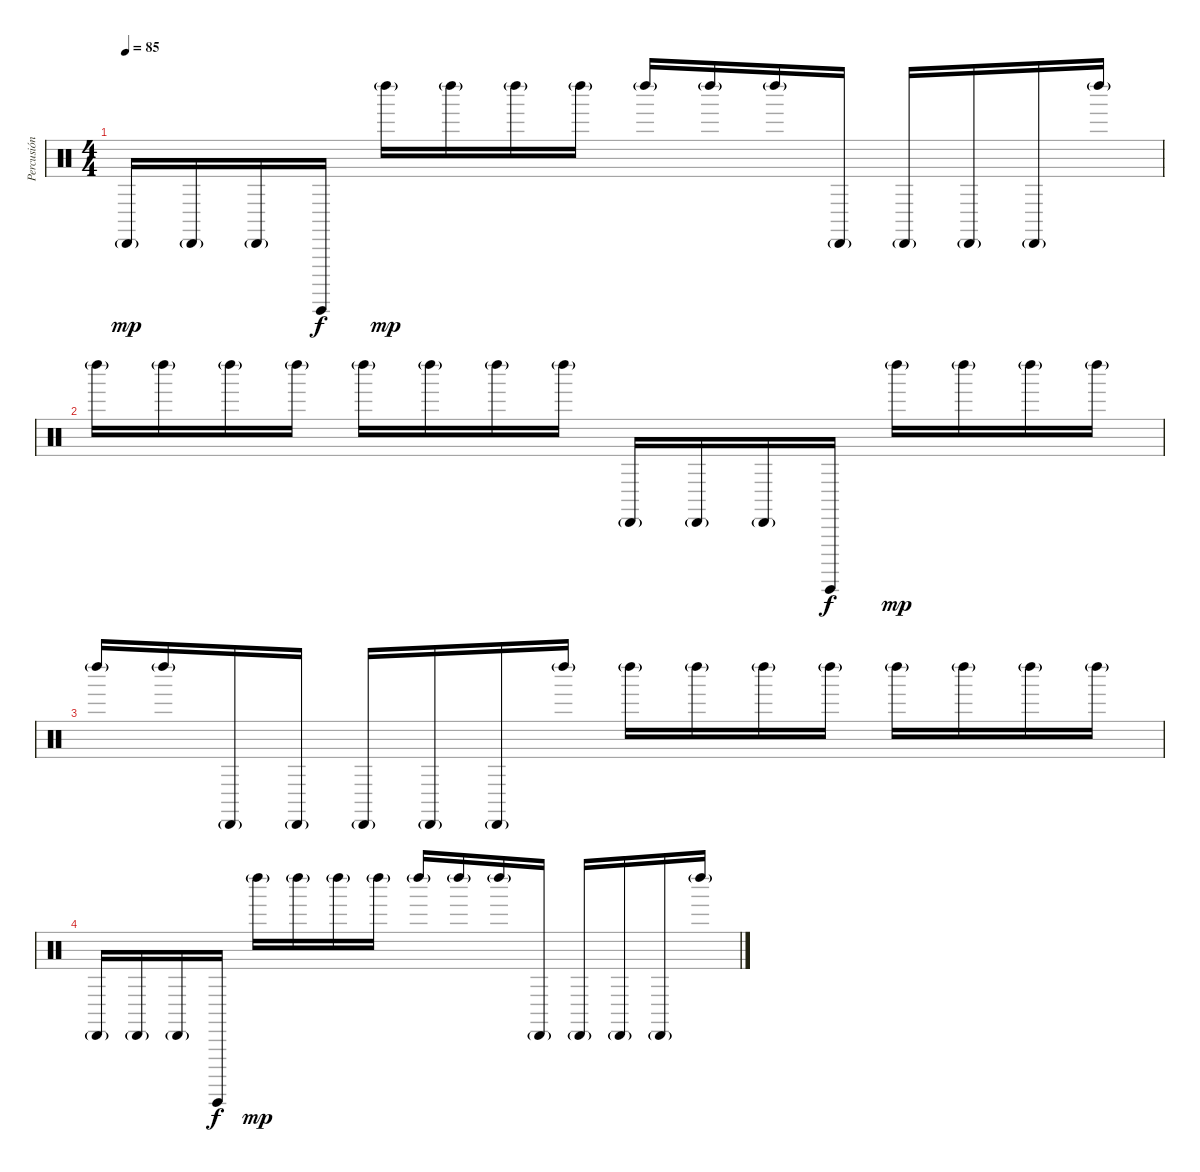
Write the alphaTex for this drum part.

\track ("Percusión" "Percusión") {instrument percussion}
\staff {score}
\articulation defaults
\ts (4 4)
\tempo 85
\clef neutral
\ks c "Cabasa (hit)"{g}.16{dy mp} "Cabasa (hit)"{g}.16 "Cabasa (hit)"{g}.16 "Guiro (hit)".16{dy f} "Left Maraca (hit)"{g}.16{dy mp} "Left Maraca (hit)"{g}.16 "Left Maraca (hit)"{g}.16 "Left Maraca (hit)"{g}.16 "Left Maraca (hit)"{g}.16 "Left Maraca (hit)"{g}.16 "Left Maraca (hit)"{g}.16 "Cabasa (hit)"{g}.16 "Cabasa (hit)"{g}.16 "Cabasa (hit)"{g}.16 "Cabasa (hit)"{g}.16 "Left Maraca (hit)"{g}.16
|
"Left Maraca (hit)"{g}.16 "Left Maraca (hit)"{g}.16 "Left Maraca (hit)"{g}.16 "Left Maraca (hit)"{g}.16 "Left Maraca (hit)"{g}.16 "Left Maraca (hit)"{g}.16 "Left Maraca (hit)"{g}.16 "Left Maraca (hit)"{g}.16 "Cabasa (hit)"{g}.16 "Cabasa (hit)"{g}.16 "Cabasa (hit)"{g}.16 "Guiro (hit)".16{dy f} "Left Maraca (hit)"{g}.16{dy mp} "Left Maraca (hit)"{g}.16 "Left Maraca (hit)"{g}.16 "Left Maraca (hit)"{g}.16 |
"Left Maraca (hit)"{g}.16 "Left Maraca (hit)"{g}.16 "Cabasa (hit)"{g}.16 "Cabasa (hit)"{g}.16 "Cabasa (hit)"{g}.16 "Cabasa (hit)"{g}.16 "Cabasa (hit)"{g}.16 "Left Maraca (hit)"{g}.16 "Left Maraca (hit)"{g}.16 "Left Maraca (hit)"{g}.16 "Left Maraca (hit)"{g}.16 "Left Maraca (hit)"{g}.16 "Left Maraca (hit)"{g}.16 "Left Maraca (hit)"{g}.16 "Left Maraca (hit)"{g}.16 "Left Maraca (hit)"{g}.16 |
"Cabasa (hit)"{g}.16 "Cabasa (hit)"{g}.16 "Cabasa (hit)"{g}.16 "Guiro (hit)".16{dy f} "Left Maraca (hit)"{g}.16{dy mp} "Left Maraca (hit)"{g}.16 "Left Maraca (hit)"{g}.16 "Left Maraca (hit)"{g}.16 "Left Maraca (hit)"{g}.16 "Left Maraca (hit)"{g}.16 "Left Maraca (hit)"{g}.16 "Cabasa (hit)"{g}.16 "Cabasa (hit)"{g}.16 "Cabasa (hit)"{g}.16 "Cabasa (hit)"{g}.16 "Left Maraca (hit)"{g}.16
